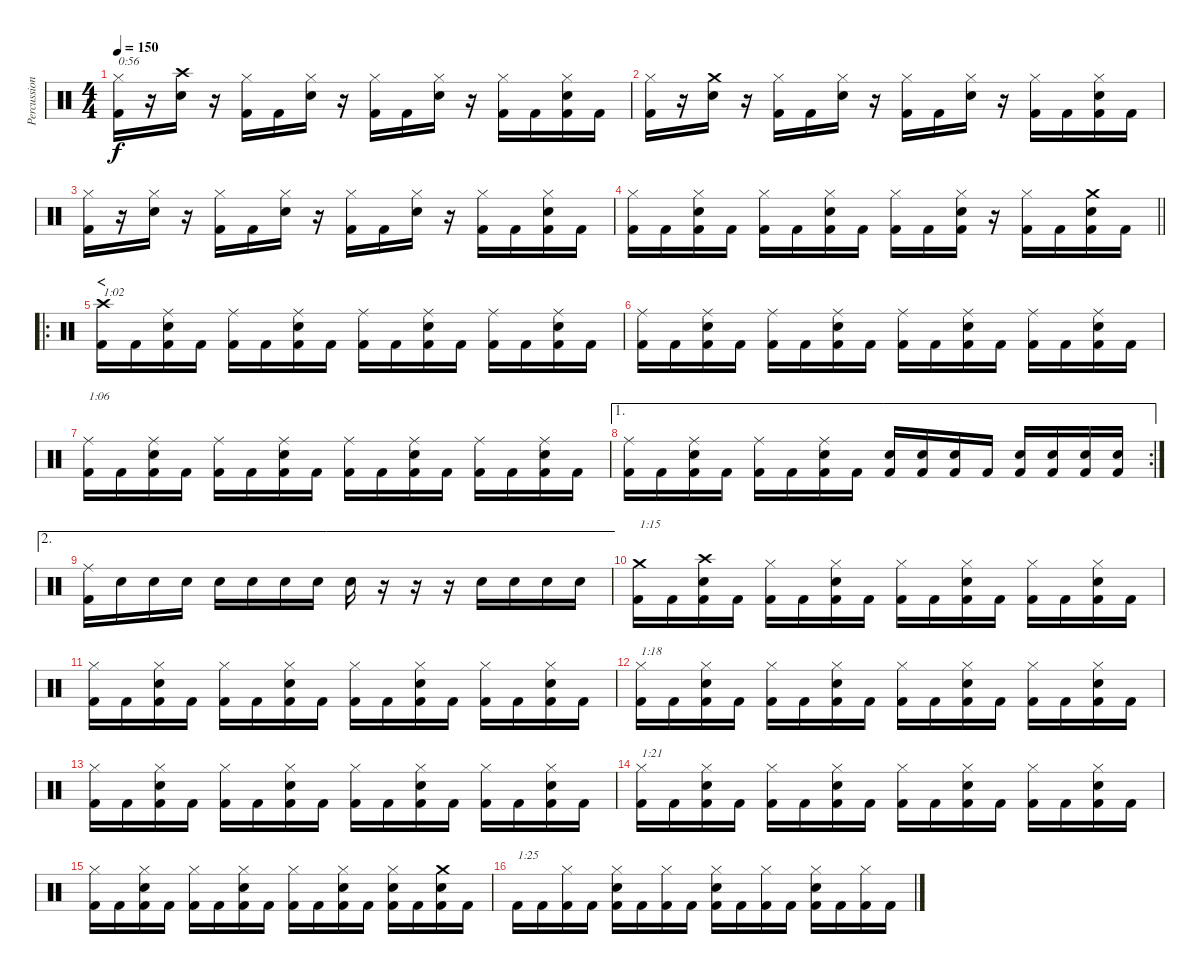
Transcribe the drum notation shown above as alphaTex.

\track ("Percussion" "Percussion") {instrument percussion}
\staff {score}
\articulation defaults
\ts (4 4)
\tempo 150
\clef neutral
\ks c
("Hi-Hat (closed)" "Kick (hit) 2").16{txt "0:56" dy f} r.16 ("Crash high (hit)" "Electric Snare (hit)").16 r.16 ("Hi-Hat (closed)" "Kick (hit) 2").16 "Kick (hit) 2".16 ("Hi-Hat (closed)" "Electric Snare (hit)").16 r.16 ("Hi-Hat (closed)" "Kick (hit) 2").16 "Kick (hit) 2".16 ("Hi-Hat (closed)" "Electric Snare (hit)").16 r.16 ("Hi-Hat (closed)" "Kick (hit) 2").16 "Kick (hit) 2".16 ("Hi-Hat (closed)" "Electric Snare (hit)" "Kick (hit) 2").16 "Kick (hit) 2".16 |
("Hi-Hat (closed)" "Kick (hit) 2").16 r.16 ("Crash medium (hit)" "Electric Snare (hit)").16 r.16 ("Hi-Hat (closed)" "Kick (hit) 2").16 "Kick (hit) 2".16 ("Hi-Hat (closed)" "Electric Snare (hit)").16 r.16 ("Hi-Hat (closed)" "Kick (hit) 2").16 "Kick (hit) 2".16 ("Hi-Hat (closed)" "Electric Snare (hit)").16 r.16 ("Hi-Hat (closed)" "Kick (hit) 2").16 "Kick (hit) 2".16 ("Hi-Hat (closed)" "Electric Snare (hit)" "Kick (hit) 2").16 "Kick (hit) 2".16 |
("Hi-Hat (closed)" "Kick (hit) 2").16 r.16 ("Hi-Hat (closed)" "Electric Snare (hit)").16 r.16 ("Hi-Hat (closed)" "Kick (hit) 2").16 "Kick (hit) 2".16 ("Hi-Hat (closed)" "Electric Snare (hit)").16 r.16 ("Hi-Hat (closed)" "Kick (hit) 2").16 "Kick (hit) 2".16 ("Hi-Hat (closed)" "Electric Snare (hit)").16 r.16 ("Hi-Hat (closed)" "Kick (hit) 2").16 "Kick (hit) 2".16 ("Hi-Hat (closed)" "Electric Snare (hit)" "Kick (hit) 2").16 "Kick (hit) 2".16 |
\barLineRight lightlight
("Hi-Hat (closed)" "Kick (hit) 2").16 "Kick (hit) 2".16 ("Hi-Hat (closed)" "Electric Snare (hit)" "Kick (hit) 2").16 "Kick (hit) 2".16 ("Hi-Hat (closed)" "Kick (hit) 2").16 "Kick (hit) 2".16 ("Hi-Hat (closed)" "Electric Snare (hit)" "Kick (hit) 2").16 "Kick (hit) 2".16 ("Hi-Hat (closed)" "Kick (hit) 2").16 "Kick (hit) 2".16 ("Hi-Hat (closed)" "Electric Snare (hit)" "Kick (hit) 2").16 r.16 ("Hi-Hat (closed)" "Kick (hit) 2").16 "Kick (hit) 2".16 ("Crash medium (hit)" "Electric Snare (hit)" "Kick (hit) 2").16 "Kick (hit) 2".16 |
\ro
\section ("" "<")
("Crash high (hit)" "Kick (hit) 2").16{txt "1:02"} "Kick (hit) 2".16 ("Ride (middle)" "Electric Snare (hit)" "Kick (hit) 2").16 "Kick (hit) 2".16 ("Ride (middle)" "Kick (hit) 2").16 "Kick (hit) 2".16 ("Ride (middle)" "Electric Snare (hit)" "Kick (hit) 2").16 "Kick (hit) 2".16 ("Ride (middle)" "Kick (hit) 2").16 "Kick (hit) 2".16 ("Ride (middle)" "Electric Snare (hit)" "Kick (hit) 2").16 "Kick (hit) 2".16 ("Ride (middle)" "Kick (hit) 2").16 "Kick (hit) 2".16 ("Ride (middle)" "Electric Snare (hit)" "Kick (hit) 2").16 "Kick (hit) 2".16 |
("Ride (middle)" "Kick (hit) 2").16 "Kick (hit) 2".16 ("Ride (middle)" "Electric Snare (hit)" "Kick (hit) 2").16 "Kick (hit) 2".16 ("Ride (middle)" "Kick (hit) 2").16 "Kick (hit) 2".16 ("Ride (middle)" "Electric Snare (hit)" "Kick (hit) 2").16 "Kick (hit) 2".16 ("Ride (middle)" "Kick (hit) 2").16 "Kick (hit) 2".16 ("Ride (middle)" "Electric Snare (hit)" "Kick (hit) 2").16 "Kick (hit) 2".16 ("Ride (middle)" "Kick (hit) 2").16 "Kick (hit) 2".16 ("Ride (middle)" "Electric Snare (hit)" "Kick (hit) 2").16 "Kick (hit) 2".16 |
("Ride (middle)" "Kick (hit) 2").16{txt "1:06"} "Kick (hit) 2".16 ("Ride (middle)" "Electric Snare (hit)" "Kick (hit) 2").16 "Kick (hit) 2".16 ("Ride (middle)" "Kick (hit) 2").16 "Kick (hit) 2".16 ("Ride (middle)" "Electric Snare (hit)" "Kick (hit) 2").16 "Kick (hit) 2".16 ("Ride (middle)" "Kick (hit) 2").16 "Kick (hit) 2".16 ("Ride (middle)" "Electric Snare (hit)" "Kick (hit) 2").16 "Kick (hit) 2".16 ("Ride (middle)" "Kick (hit) 2").16 "Kick (hit) 2".16 ("Ride (middle)" "Electric Snare (hit)" "Kick (hit) 2").16 "Kick (hit) 2".16 |
\ae 1
\rc 2
("Ride (middle)" "Kick (hit) 2").16 "Kick (hit) 2".16 ("Ride (middle)" "Electric Snare (hit)" "Kick (hit) 2").16 "Kick (hit) 2".16 ("Ride (middle)" "Kick (hit) 2").16 "Kick (hit) 2".16 ("Ride (middle)" "Electric Snare (hit)" "Kick (hit) 2").16 "Kick (hit) 2".16 ("Electric Snare (hit)" "Kick (hit) 2").16 ("Electric Snare (hit)" "Kick (hit) 2").16 ("Electric Snare (hit)" "Kick (hit) 2").16 "Kick (hit) 2".16 ("Electric Snare (hit)" "Kick (hit) 2").16 ("Electric Snare (hit)" "Kick (hit) 2").16 ("Electric Snare (hit)" "Kick (hit) 2").16 ("Electric Snare (hit)" "Kick (hit) 2").16 |
\ae 2
("Ride (middle)" "Kick (hit) 2").16 "Electric Snare (hit)".16 "Electric Snare (hit)".16 "Electric Snare (hit)".16 "Electric Snare (hit)".16 "Electric Snare (hit)".16 "Electric Snare (hit)".16 "Electric Snare (hit)".16 "Electric Snare (hit)".16 r.16 r.16 r.16 "Electric Snare (hit)".16 "Electric Snare (hit)".16 "Electric Snare (hit)".16 "Electric Snare (hit)".16 |
("Crash medium (hit)" "Kick (hit) 2").16{txt "1:15"} "Kick (hit) 2".16 ("Crash high (hit)" "Electric Snare (hit)" "Kick (hit) 2").16 "Kick (hit) 2".16 ("Hi-Hat (closed)" "Kick (hit) 2").16 "Kick (hit) 2".16 ("Hi-Hat (closed)" "Electric Snare (hit)" "Kick (hit) 2").16 "Kick (hit) 2".16 ("Hi-Hat (closed)" "Kick (hit) 2").16 "Kick (hit) 2".16 ("Hi-Hat (closed)" "Electric Snare (hit)" "Kick (hit) 2").16 "Kick (hit) 2".16 ("Hi-Hat (closed)" "Kick (hit) 2").16 "Kick (hit) 2".16 ("Hi-Hat (closed)" "Electric Snare (hit)" "Kick (hit) 2").16 "Kick (hit) 2".16 |
("Hi-Hat (closed)" "Kick (hit) 2").16 "Kick (hit) 2".16 ("Hi-Hat (closed)" "Electric Snare (hit)" "Kick (hit) 2").16 "Kick (hit) 2".16 ("Hi-Hat (closed)" "Kick (hit) 2").16 "Kick (hit) 2".16 ("Hi-Hat (closed)" "Electric Snare (hit)" "Kick (hit) 2").16 "Kick (hit) 2".16 ("Hi-Hat (closed)" "Kick (hit) 2").16 "Kick (hit) 2".16 ("Hi-Hat (closed)" "Electric Snare (hit)" "Kick (hit) 2").16 "Kick (hit) 2".16 ("Hi-Hat (closed)" "Kick (hit) 2").16 "Kick (hit) 2".16 ("Hi-Hat (closed)" "Electric Snare (hit)" "Kick (hit) 2").16 "Kick (hit) 2".16 |
("Hi-Hat (closed)" "Kick (hit) 2").16{txt "1:18"} "Kick (hit) 2".16 ("Hi-Hat (closed)" "Electric Snare (hit)" "Kick (hit) 2").16 "Kick (hit) 2".16 ("Hi-Hat (closed)" "Kick (hit) 2").16 "Kick (hit) 2".16 ("Hi-Hat (closed)" "Electric Snare (hit)" "Kick (hit) 2").16 "Kick (hit) 2".16 ("Hi-Hat (closed)" "Kick (hit) 2").16 "Kick (hit) 2".16 ("Hi-Hat (closed)" "Electric Snare (hit)" "Kick (hit) 2").16 "Kick (hit) 2".16 ("Hi-Hat (closed)" "Kick (hit) 2").16 "Kick (hit) 2".16 ("Hi-Hat (closed)" "Electric Snare (hit)" "Kick (hit) 2").16 "Kick (hit) 2".16 |
("Hi-Hat (closed)" "Kick (hit) 2").16 "Kick (hit) 2".16 ("Hi-Hat (closed)" "Electric Snare (hit)" "Kick (hit) 2").16 "Kick (hit) 2".16 ("Hi-Hat (closed)" "Kick (hit) 2").16 "Kick (hit) 2".16 ("Hi-Hat (closed)" "Electric Snare (hit)" "Kick (hit) 2").16 "Kick (hit) 2".16 ("Hi-Hat (closed)" "Kick (hit) 2").16 "Kick (hit) 2".16 ("Hi-Hat (closed)" "Electric Snare (hit)" "Kick (hit) 2").16 "Kick (hit) 2".16 ("Hi-Hat (closed)" "Kick (hit) 2").16 "Kick (hit) 2".16 ("Hi-Hat (closed)" "Electric Snare (hit)" "Kick (hit) 2").16 "Kick (hit) 2".16 |
("Hi-Hat (closed)" "Kick (hit) 2").16{txt "1:21"} "Kick (hit) 2".16 ("Hi-Hat (closed)" "Electric Snare (hit)" "Kick (hit) 2").16 "Kick (hit) 2".16 ("Hi-Hat (closed)" "Kick (hit) 2").16 "Kick (hit) 2".16 ("Hi-Hat (closed)" "Electric Snare (hit)" "Kick (hit) 2").16 "Kick (hit) 2".16 ("Hi-Hat (closed)" "Kick (hit) 2").16 "Kick (hit) 2".16 ("Hi-Hat (closed)" "Electric Snare (hit)" "Kick (hit) 2").16 "Kick (hit) 2".16 ("Hi-Hat (closed)" "Kick (hit) 2").16 "Kick (hit) 2".16 ("Hi-Hat (closed)" "Electric Snare (hit)" "Kick (hit) 2").16 "Kick (hit) 2".16 |
("Hi-Hat (closed)" "Kick (hit) 2").16 "Kick (hit) 2".16 ("Hi-Hat (closed)" "Electric Snare (hit)" "Kick (hit) 2").16 "Kick (hit) 2".16 ("Hi-Hat (closed)" "Kick (hit) 2").16 "Kick (hit) 2".16 ("Hi-Hat (closed)" "Electric Snare (hit)" "Kick (hit) 2").16 "Kick (hit) 2".16 ("Hi-Hat (closed)" "Kick (hit) 2").16 "Kick (hit) 2".16 ("Hi-Hat (closed)" "Electric Snare (hit)" "Kick (hit) 2").16 "Kick (hit) 2".16 ("Hi-Hat (closed)" "Electric Snare (hit)" "Kick (hit) 2").16 "Kick (hit) 2".16 ("Crash medium (hit)" "Electric Snare (hit)" "Kick (hit) 2").16 "Kick (hit) 2".16 |
"Kick (hit) 2".16{txt "1:25"} "Kick (hit) 2".16 ("Hi-Hat (closed)" "Kick (hit) 2").16 "Kick (hit) 2".16 ("Hi-Hat (closed)" "Electric Snare (hit)" "Kick (hit) 2").16 "Kick (hit) 2".16 ("Hi-Hat (closed)" "Kick (hit) 2").16 "Kick (hit) 2".16 ("Hi-Hat (closed)" "Electric Snare (hit)" "Kick (hit) 2").16 "Kick (hit) 2".16 ("Hi-Hat (closed)" "Kick (hit) 2").16 "Kick (hit) 2".16 ("Hi-Hat (closed)" "Electric Snare (hit)" "Kick (hit) 2").16 "Kick (hit) 2".16 ("Hi-Hat (closed)" "Kick (hit) 2").16 "Kick (hit) 2".16
